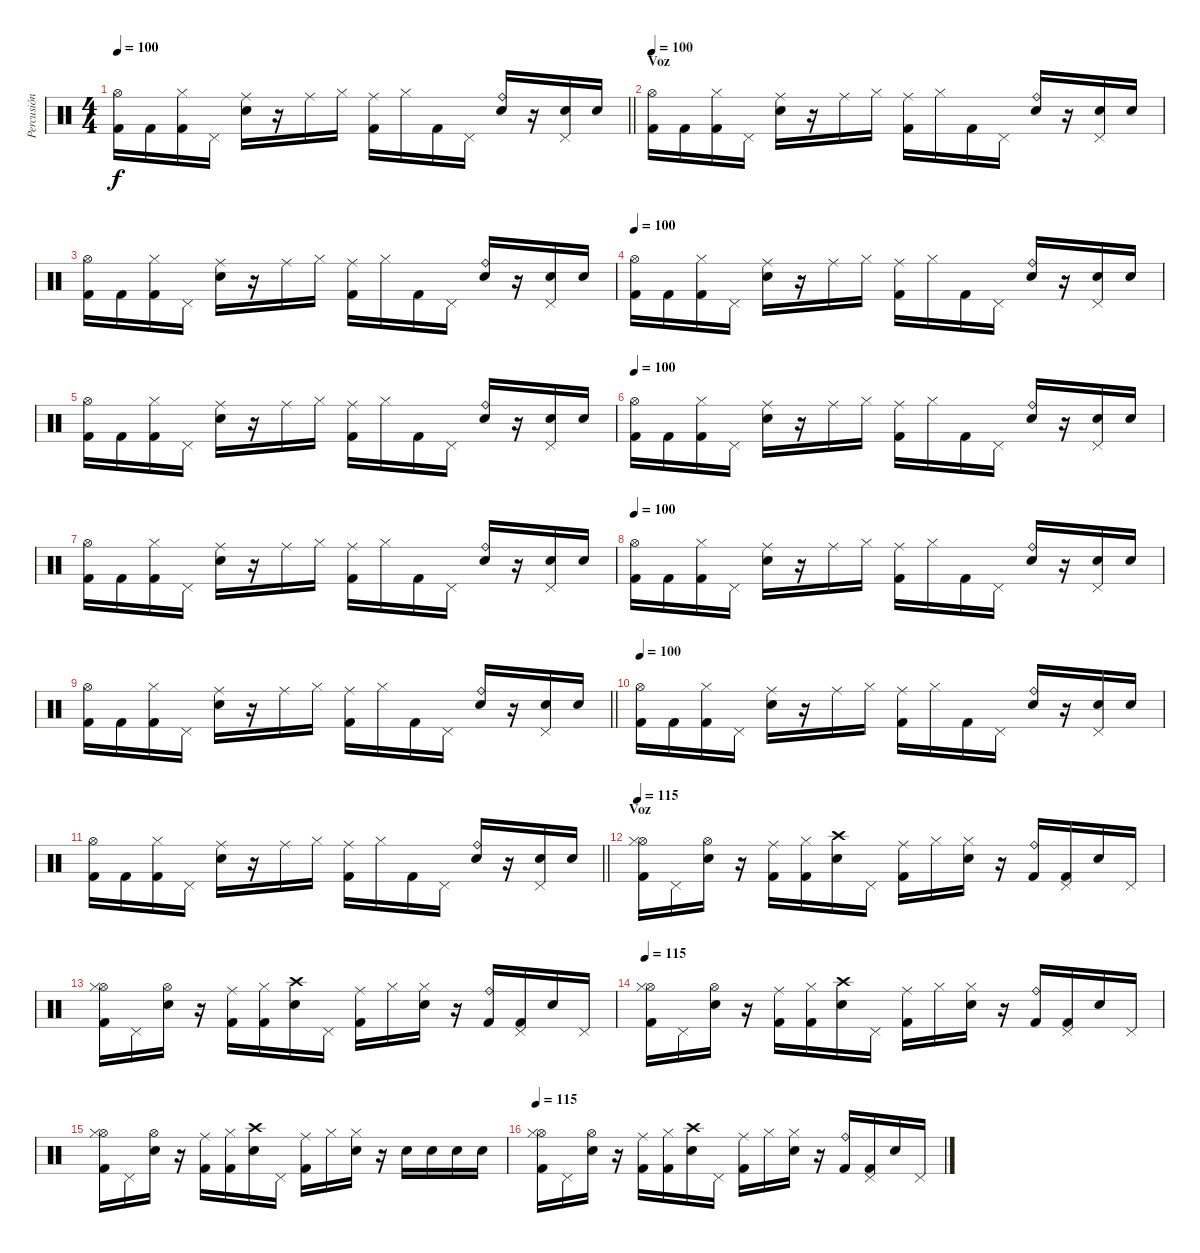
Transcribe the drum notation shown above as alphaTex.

\track ("Percusión" "Percusión") {instrument percussion}
\staff {score}
\articulation defaults
\ts (4 4)
\tempo 100
\clef neutral
\barLineRight lightlight
\ks c
("Kick (hit) 2" "Hi-Hat (open)").16{dy f} "Kick (hit) 2".16 ("Kick (hit) 2" "Hi-Hat (closed)").16 "Pedal Hi-Hat (hit)".16 ("Electric Snare (hit)" "Ride (middle)").16 r.16 "Ride (middle)".16 "Hi-Hat (closed)".16 ("Kick (hit) 2" "Ride (middle)").16 "Hi-Hat (closed)".16 "Kick (hit) 2".16 "Pedal Hi-Hat (hit)".16 ("Electric Snare (hit)" "Ride (bell)").16 r.16 ("Snare (hit) 2" "Pedal Hi-Hat (hit)").16 "Electric Snare (hit)".16 |
\section ("" "Voz")
\tempo 100
("Kick (hit) 2" "Hi-Hat (open)").16 "Kick (hit) 2".16 ("Kick (hit) 2" "Hi-Hat (closed)").16 "Pedal Hi-Hat (hit)".16 ("Electric Snare (hit)" "Ride (middle)").16 r.16 "Ride (middle)".16 "Hi-Hat (closed)".16 ("Kick (hit) 2" "Ride (middle)").16 "Hi-Hat (closed)".16 "Kick (hit) 2".16 "Pedal Hi-Hat (hit)".16 ("Electric Snare (hit)" "Ride (bell)").16 r.16 ("Snare (hit) 2" "Pedal Hi-Hat (hit)").16 "Electric Snare (hit)".16 |
("Kick (hit) 2" "Hi-Hat (open)").16 "Kick (hit) 2".16 ("Kick (hit) 2" "Hi-Hat (closed)").16 "Pedal Hi-Hat (hit)".16 ("Electric Snare (hit)" "Ride (middle)").16 r.16 "Ride (middle)".16 "Hi-Hat (closed)".16 ("Kick (hit) 2" "Ride (middle)").16 "Hi-Hat (closed)".16 "Kick (hit) 2".16 "Pedal Hi-Hat (hit)".16 ("Electric Snare (hit)" "Ride (bell)").16 r.16 ("Snare (hit) 2" "Pedal Hi-Hat (hit)").16 "Electric Snare (hit)".16 |
\tempo 100
("Kick (hit) 2" "Hi-Hat (open)").16 "Kick (hit) 2".16 ("Kick (hit) 2" "Hi-Hat (closed)").16 "Pedal Hi-Hat (hit)".16 ("Electric Snare (hit)" "Ride (middle)").16 r.16 "Ride (middle)".16 "Hi-Hat (closed)".16 ("Kick (hit) 2" "Ride (middle)").16 "Hi-Hat (closed)".16 "Kick (hit) 2".16 "Pedal Hi-Hat (hit)".16 ("Electric Snare (hit)" "Ride (bell)").16 r.16 ("Snare (hit) 2" "Pedal Hi-Hat (hit)").16 "Electric Snare (hit)".16 |
("Kick (hit) 2" "Hi-Hat (open)").16 "Kick (hit) 2".16 ("Kick (hit) 2" "Hi-Hat (closed)").16 "Pedal Hi-Hat (hit)".16 ("Electric Snare (hit)" "Ride (middle)").16 r.16 "Ride (middle)".16 "Hi-Hat (closed)".16 ("Kick (hit) 2" "Ride (middle)").16 "Hi-Hat (closed)".16 "Kick (hit) 2".16 "Pedal Hi-Hat (hit)".16 ("Electric Snare (hit)" "Ride (bell)").16 r.16 ("Snare (hit) 2" "Pedal Hi-Hat (hit)").16 "Electric Snare (hit)".16 |
\tempo 100
("Kick (hit) 2" "Hi-Hat (open)").16 "Kick (hit) 2".16 ("Kick (hit) 2" "Hi-Hat (closed)").16 "Pedal Hi-Hat (hit)".16 ("Electric Snare (hit)" "Ride (middle)").16 r.16 "Ride (middle)".16 "Hi-Hat (closed)".16 ("Kick (hit) 2" "Ride (middle)").16 "Hi-Hat (closed)".16 "Kick (hit) 2".16 "Pedal Hi-Hat (hit)".16 ("Electric Snare (hit)" "Ride (bell)").16 r.16 ("Snare (hit) 2" "Pedal Hi-Hat (hit)").16 "Electric Snare (hit)".16 |
("Kick (hit) 2" "Hi-Hat (open)").16 "Kick (hit) 2".16 ("Kick (hit) 2" "Hi-Hat (closed)").16 "Pedal Hi-Hat (hit)".16 ("Electric Snare (hit)" "Ride (middle)").16 r.16 "Ride (middle)".16 "Hi-Hat (closed)".16 ("Kick (hit) 2" "Ride (middle)").16 "Hi-Hat (closed)".16 "Kick (hit) 2".16 "Pedal Hi-Hat (hit)".16 ("Electric Snare (hit)" "Ride (bell)").16 r.16 ("Snare (hit) 2" "Pedal Hi-Hat (hit)").16 "Electric Snare (hit)".16 |
\tempo 100
("Kick (hit) 2" "Hi-Hat (open)").16 "Kick (hit) 2".16 ("Kick (hit) 2" "Hi-Hat (closed)").16 "Pedal Hi-Hat (hit)".16 ("Electric Snare (hit)" "Ride (middle)").16 r.16 "Ride (middle)".16 "Hi-Hat (closed)".16 ("Kick (hit) 2" "Ride (middle)").16 "Hi-Hat (closed)".16 "Kick (hit) 2".16 "Pedal Hi-Hat (hit)".16 ("Electric Snare (hit)" "Ride (bell)").16 r.16 ("Snare (hit) 2" "Pedal Hi-Hat (hit)").16 "Electric Snare (hit)".16 |
\barLineRight lightlight
("Kick (hit) 2" "Hi-Hat (open)").16 "Kick (hit) 2".16 ("Kick (hit) 2" "Hi-Hat (closed)").16 "Pedal Hi-Hat (hit)".16 ("Electric Snare (hit)" "Ride (middle)").16 r.16 "Ride (middle)".16 "Hi-Hat (closed)".16 ("Kick (hit) 2" "Ride (middle)").16 "Hi-Hat (closed)".16 "Kick (hit) 2".16 "Pedal Hi-Hat (hit)".16 ("Electric Snare (hit)" "Ride (bell)").16 r.16 ("Snare (hit) 2" "Pedal Hi-Hat (hit)").16 "Electric Snare (hit)".16 |
\section ("" "")
\tempo 100
("Kick (hit) 2" "Hi-Hat (open)").16 "Kick (hit) 2".16 ("Kick (hit) 2" "Hi-Hat (closed)").16 "Pedal Hi-Hat (hit)".16 ("Electric Snare (hit)" "Ride (middle)").16 r.16 "Ride (middle)".16 "Hi-Hat (closed)".16 ("Kick (hit) 2" "Ride (middle)").16 "Hi-Hat (closed)".16 "Kick (hit) 2".16 "Pedal Hi-Hat (hit)".16 ("Electric Snare (hit)" "Ride (bell)").16 r.16 ("Snare (hit) 2" "Pedal Hi-Hat (hit)").16 "Electric Snare (hit)".16 |
\barLineRight lightlight
("Kick (hit) 2" "Hi-Hat (open)").16 "Kick (hit) 2".16 ("Kick (hit) 2" "Hi-Hat (closed)").16 "Pedal Hi-Hat (hit)".16 ("Electric Snare (hit)" "Ride (middle)").16 r.16 "Ride (middle)".16 "Hi-Hat (closed)".16 ("Kick (hit) 2" "Ride (middle)").16 "Hi-Hat (closed)".16 "Kick (hit) 2".16 "Pedal Hi-Hat (hit)".16 ("Electric Snare (hit)" "Ride (bell)").16 r.16 ("Snare (hit) 2" "Pedal Hi-Hat (hit)").16 "Electric Snare (hit)".16 |
\section ("" "Voz")
\tempo 115
("Kick (hit) 2" "Hi-Hat (open)" "Hi-Hat (closed)").16 "Pedal Hi-Hat (hit)".16 ("Hi-Hat (open)" "Electric Snare (hit)").16 r.16 ("Kick (hit) 2" "Ride (middle)").16 ("Kick (hit) 2" "Hi-Hat (closed)").16 ("Crash high (hit)" "Electric Snare (hit)").16 "Pedal Hi-Hat (hit)".16 ("Kick (hit) 2" "Ride (middle)").16 "Hi-Hat (closed)".16 ("Electric Snare (hit)" "Hi-Hat (closed)").16 r.16 ("Kick (hit) 2" "Ride (bell)").16 ("Kick (hit) 2" "Pedal Hi-Hat (hit)").16 "Electric Snare (hit)".16 "Pedal Hi-Hat (hit)".16 |
("Kick (hit) 2" "Hi-Hat (open)" "Hi-Hat (closed)").16 "Pedal Hi-Hat (hit)".16 ("Hi-Hat (open)" "Electric Snare (hit)").16 r.16 ("Kick (hit) 2" "Ride (middle)").16 ("Kick (hit) 2" "Hi-Hat (closed)").16 ("Crash high (hit)" "Electric Snare (hit)").16 "Pedal Hi-Hat (hit)".16 ("Kick (hit) 2" "Ride (middle)").16 "Hi-Hat (closed)".16 ("Electric Snare (hit)" "Hi-Hat (closed)").16 r.16 ("Kick (hit) 2" "Ride (bell)").16 ("Kick (hit) 2" "Pedal Hi-Hat (hit)").16 "Electric Snare (hit)".16 "Pedal Hi-Hat (hit)".16 |
\tempo 115
("Kick (hit) 2" "Hi-Hat (open)" "Hi-Hat (closed)").16 "Pedal Hi-Hat (hit)".16 ("Hi-Hat (open)" "Electric Snare (hit)").16 r.16 ("Kick (hit) 2" "Ride (middle)").16 ("Kick (hit) 2" "Hi-Hat (closed)").16 ("Crash high (hit)" "Electric Snare (hit)").16 "Pedal Hi-Hat (hit)".16 ("Kick (hit) 2" "Ride (middle)").16 "Hi-Hat (closed)".16 ("Electric Snare (hit)" "Hi-Hat (closed)").16 r.16 ("Kick (hit) 2" "Ride (bell)").16 ("Kick (hit) 2" "Pedal Hi-Hat (hit)").16 "Electric Snare (hit)".16 "Pedal Hi-Hat (hit)".16 |
("Kick (hit) 2" "Hi-Hat (open)" "Hi-Hat (closed)").16 "Pedal Hi-Hat (hit)".16 ("Hi-Hat (open)" "Electric Snare (hit)").16 r.16 ("Kick (hit) 2" "Ride (middle)").16 ("Kick (hit) 2" "Hi-Hat (closed)").16 ("Crash high (hit)" "Electric Snare (hit)").16 "Pedal Hi-Hat (hit)".16 ("Kick (hit) 2" "Ride (middle)").16 "Hi-Hat (closed)".16 ("Electric Snare (hit)" "Hi-Hat (closed)").16 r.16 "Electric Snare (hit)".16 "Electric Snare (hit)".16 "Electric Snare (hit)".16 "Electric Snare (hit)".16 |
\tempo 115
("Kick (hit) 2" "Hi-Hat (open)" "Hi-Hat (closed)").16 "Pedal Hi-Hat (hit)".16 ("Hi-Hat (open)" "Electric Snare (hit)").16 r.16 ("Kick (hit) 2" "Ride (middle)").16 ("Kick (hit) 2" "Hi-Hat (closed)").16 ("Crash high (hit)" "Electric Snare (hit)").16 "Pedal Hi-Hat (hit)".16 ("Kick (hit) 2" "Ride (middle)").16 "Hi-Hat (closed)".16 ("Electric Snare (hit)" "Hi-Hat (closed)").16 r.16 ("Kick (hit) 2" "Ride (bell)").16 ("Kick (hit) 2" "Pedal Hi-Hat (hit)").16 "Electric Snare (hit)".16 "Pedal Hi-Hat (hit)".16
